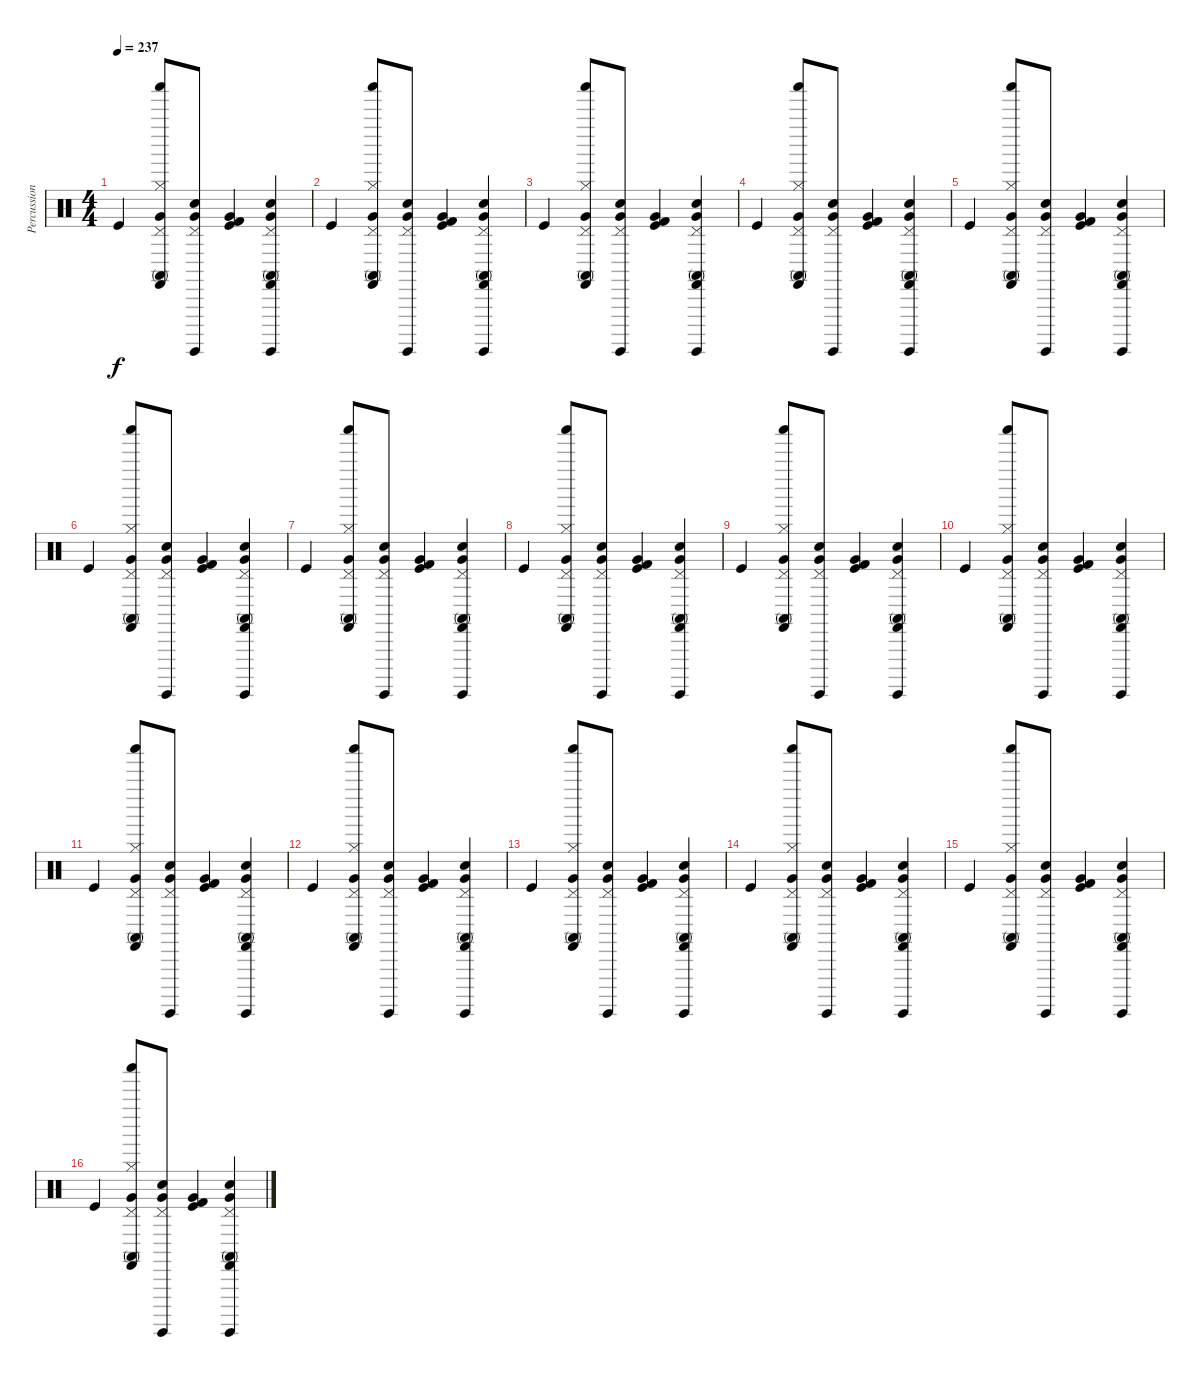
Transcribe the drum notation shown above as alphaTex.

\track ("Percussions" "Percussion") {instrument percussion}
\staff {score}
\articulation defaults
\ts (4 4)
\tempo 237
\clef neutral
\ks c "Kick (hit)".4{dy f}
("Hi-Hat (closed)" "Shaker (hit)" "Pedal Hi-Hat (hit)" "Very Low Tom (hit)" "Conga high (mute)" "Castanets (hit)").8 ("Hand Clap (hit)" "Surdo (hit)" "Pedal Hi-Hat (hit)" "Very Low Tom (hit)").8 ("Kick (hit)" "Kick (hit) 2" "Very Low Tom (hit)").4 ("Hand Clap (hit)" "Surdo (hit)" "Pedal Hi-Hat (hit)" "Very Low Tom (hit)" "Conga high (mute)" "Castanets (hit)").4 |
"Kick (hit)".4 ("Hi-Hat (closed)" "Shaker (hit)" "Pedal Hi-Hat (hit)" "Very Low Tom (hit)" "Conga high (mute)" "Castanets (hit)").8 ("Hand Clap (hit)" "Surdo (hit)" "Pedal Hi-Hat (hit)" "Very Low Tom (hit)").8 ("Kick (hit)" "Kick (hit) 2" "Very Low Tom (hit)").4 ("Hand Clap (hit)" "Surdo (hit)" "Pedal Hi-Hat (hit)" "Very Low Tom (hit)" "Conga high (mute)" "Castanets (hit)").4 |
"Kick (hit)".4 ("Hi-Hat (closed)" "Shaker (hit)" "Pedal Hi-Hat (hit)" "Very Low Tom (hit)" "Conga high (mute)" "Castanets (hit)").8 ("Hand Clap (hit)" "Surdo (hit)" "Pedal Hi-Hat (hit)" "Very Low Tom (hit)").8 ("Kick (hit)" "Kick (hit) 2" "Very Low Tom (hit)").4 ("Hand Clap (hit)" "Surdo (hit)" "Pedal Hi-Hat (hit)" "Very Low Tom (hit)" "Conga high (mute)" "Castanets (hit)").4 |
"Kick (hit)".4 ("Hi-Hat (closed)" "Shaker (hit)" "Pedal Hi-Hat (hit)" "Very Low Tom (hit)" "Conga high (mute)" "Castanets (hit)").8 ("Hand Clap (hit)" "Surdo (hit)" "Pedal Hi-Hat (hit)" "Very Low Tom (hit)").8 ("Kick (hit)" "Kick (hit) 2" "Very Low Tom (hit)").4 ("Hand Clap (hit)" "Surdo (hit)" "Pedal Hi-Hat (hit)" "Very Low Tom (hit)" "Conga high (mute)" "Castanets (hit)").4 |
"Kick (hit)".4 ("Hi-Hat (closed)" "Shaker (hit)" "Pedal Hi-Hat (hit)" "Very Low Tom (hit)" "Conga high (mute)" "Castanets (hit)").8 ("Hand Clap (hit)" "Surdo (hit)" "Pedal Hi-Hat (hit)" "Very Low Tom (hit)").8 ("Kick (hit)" "Kick (hit) 2" "Very Low Tom (hit)").4 ("Hand Clap (hit)" "Surdo (hit)" "Pedal Hi-Hat (hit)" "Very Low Tom (hit)" "Conga high (mute)" "Castanets (hit)").4 |
"Kick (hit)".4 ("Hi-Hat (closed)" "Shaker (hit)" "Pedal Hi-Hat (hit)" "Very Low Tom (hit)" "Conga high (mute)" "Castanets (hit)").8 ("Hand Clap (hit)" "Surdo (hit)" "Pedal Hi-Hat (hit)" "Very Low Tom (hit)").8 ("Kick (hit)" "Kick (hit) 2" "Very Low Tom (hit)").4 ("Hand Clap (hit)" "Surdo (hit)" "Pedal Hi-Hat (hit)" "Very Low Tom (hit)" "Conga high (mute)" "Castanets (hit)").4 |
"Kick (hit)".4 ("Hi-Hat (closed)" "Shaker (hit)" "Pedal Hi-Hat (hit)" "Very Low Tom (hit)" "Conga high (mute)" "Castanets (hit)").8 ("Hand Clap (hit)" "Surdo (hit)" "Pedal Hi-Hat (hit)" "Very Low Tom (hit)").8 ("Kick (hit)" "Kick (hit) 2" "Very Low Tom (hit)").4 ("Hand Clap (hit)" "Surdo (hit)" "Pedal Hi-Hat (hit)" "Very Low Tom (hit)" "Conga high (mute)" "Castanets (hit)").4 |
"Kick (hit)".4 ("Hi-Hat (closed)" "Shaker (hit)" "Pedal Hi-Hat (hit)" "Very Low Tom (hit)" "Conga high (mute)" "Castanets (hit)").8 ("Hand Clap (hit)" "Surdo (hit)" "Pedal Hi-Hat (hit)" "Very Low Tom (hit)").8 ("Kick (hit)" "Kick (hit) 2" "Very Low Tom (hit)").4 ("Hand Clap (hit)" "Surdo (hit)" "Pedal Hi-Hat (hit)" "Very Low Tom (hit)" "Conga high (mute)" "Castanets (hit)").4 |
"Kick (hit)".4 ("Hi-Hat (closed)" "Shaker (hit)" "Pedal Hi-Hat (hit)" "Very Low Tom (hit)" "Conga high (mute)" "Castanets (hit)").8 ("Hand Clap (hit)" "Surdo (hit)" "Pedal Hi-Hat (hit)" "Very Low Tom (hit)").8 ("Kick (hit)" "Kick (hit) 2" "Very Low Tom (hit)").4 ("Hand Clap (hit)" "Surdo (hit)" "Pedal Hi-Hat (hit)" "Very Low Tom (hit)" "Conga high (mute)" "Castanets (hit)").4 |
"Kick (hit)".4 ("Hi-Hat (closed)" "Shaker (hit)" "Pedal Hi-Hat (hit)" "Very Low Tom (hit)" "Conga high (mute)" "Castanets (hit)").8 ("Hand Clap (hit)" "Surdo (hit)" "Pedal Hi-Hat (hit)" "Very Low Tom (hit)").8 ("Kick (hit)" "Kick (hit) 2" "Very Low Tom (hit)").4 ("Hand Clap (hit)" "Surdo (hit)" "Pedal Hi-Hat (hit)" "Very Low Tom (hit)" "Conga high (mute)" "Castanets (hit)").4 |
"Kick (hit)".4 ("Hi-Hat (closed)" "Shaker (hit)" "Pedal Hi-Hat (hit)" "Very Low Tom (hit)" "Conga high (mute)" "Castanets (hit)").8 ("Hand Clap (hit)" "Surdo (hit)" "Pedal Hi-Hat (hit)" "Very Low Tom (hit)").8 ("Kick (hit)" "Kick (hit) 2" "Very Low Tom (hit)").4 ("Hand Clap (hit)" "Surdo (hit)" "Pedal Hi-Hat (hit)" "Very Low Tom (hit)" "Conga high (mute)" "Castanets (hit)").4 |
"Kick (hit)".4 ("Hi-Hat (closed)" "Shaker (hit)" "Pedal Hi-Hat (hit)" "Very Low Tom (hit)" "Conga high (mute)" "Castanets (hit)").8 ("Hand Clap (hit)" "Surdo (hit)" "Pedal Hi-Hat (hit)" "Very Low Tom (hit)").8 ("Kick (hit)" "Kick (hit) 2" "Very Low Tom (hit)").4 ("Hand Clap (hit)" "Surdo (hit)" "Pedal Hi-Hat (hit)" "Very Low Tom (hit)" "Conga high (mute)" "Castanets (hit)").4 |
"Kick (hit)".4 ("Hi-Hat (closed)" "Shaker (hit)" "Pedal Hi-Hat (hit)" "Very Low Tom (hit)" "Conga high (mute)" "Castanets (hit)").8 ("Hand Clap (hit)" "Surdo (hit)" "Pedal Hi-Hat (hit)" "Very Low Tom (hit)").8 ("Kick (hit)" "Kick (hit) 2" "Very Low Tom (hit)").4 ("Hand Clap (hit)" "Surdo (hit)" "Pedal Hi-Hat (hit)" "Very Low Tom (hit)" "Conga high (mute)" "Castanets (hit)").4 |
"Kick (hit)".4 ("Hi-Hat (closed)" "Shaker (hit)" "Pedal Hi-Hat (hit)" "Very Low Tom (hit)" "Conga high (mute)" "Castanets (hit)").8 ("Hand Clap (hit)" "Surdo (hit)" "Pedal Hi-Hat (hit)" "Very Low Tom (hit)").8 ("Kick (hit)" "Kick (hit) 2" "Very Low Tom (hit)").4 ("Hand Clap (hit)" "Surdo (hit)" "Pedal Hi-Hat (hit)" "Very Low Tom (hit)" "Conga high (mute)" "Castanets (hit)").4 |
"Kick (hit)".4 ("Hi-Hat (closed)" "Shaker (hit)" "Pedal Hi-Hat (hit)" "Very Low Tom (hit)" "Conga high (mute)" "Castanets (hit)").8 ("Hand Clap (hit)" "Surdo (hit)" "Pedal Hi-Hat (hit)" "Very Low Tom (hit)").8 ("Kick (hit)" "Kick (hit) 2" "Very Low Tom (hit)").4 ("Hand Clap (hit)" "Surdo (hit)" "Pedal Hi-Hat (hit)" "Very Low Tom (hit)" "Conga high (mute)" "Castanets (hit)").4 |
"Kick (hit)".4 ("Hi-Hat (closed)" "Shaker (hit)" "Pedal Hi-Hat (hit)" "Very Low Tom (hit)" "Conga high (mute)" "Castanets (hit)").8 ("Hand Clap (hit)" "Surdo (hit)" "Pedal Hi-Hat (hit)" "Very Low Tom (hit)").8 ("Kick (hit)" "Kick (hit) 2" "Very Low Tom (hit)").4 ("Hand Clap (hit)" "Surdo (hit)" "Pedal Hi-Hat (hit)" "Very Low Tom (hit)" "Conga high (mute)" "Castanets (hit)").4
